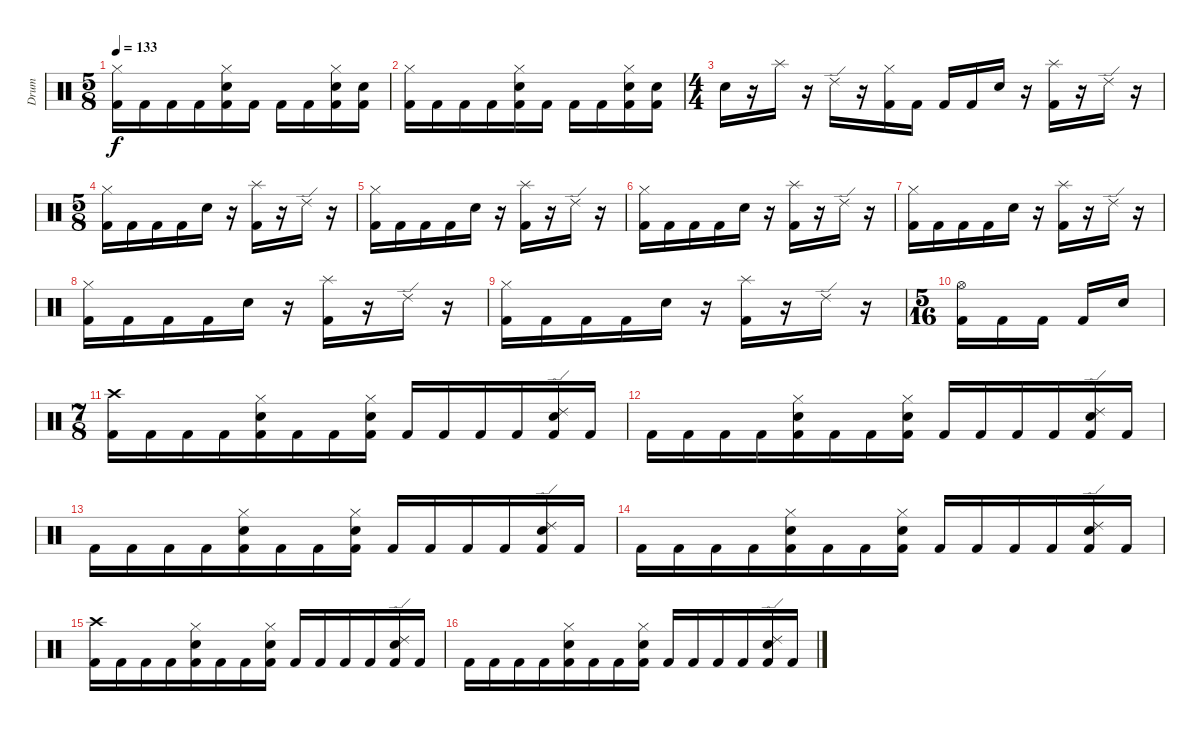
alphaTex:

\track ("Drum" "Drum") {instrument percussion}
\staff {score}
\articulation defaults
\ts (5 8)
\tempo 133
\clef neutral
\ks c
("Hi-Hat (closed)" "Kick (hit) 2").16{dy f} "Kick (hit) 2".16 "Kick (hit) 2".16 "Kick (hit) 2".16 ("Hi-Hat (closed)" "Snare (hit) 2" "Kick (hit) 2").16 "Kick (hit) 2".16 "Kick (hit) 2".16 "Kick (hit) 2".16 ("Hi-Hat (closed)" "Snare (hit) 2" "Kick (hit) 2").16 ("Snare (hit) 2" "Kick (hit) 2").16 |
("Hi-Hat (closed)" "Kick (hit) 2").16 "Kick (hit) 2".16 "Kick (hit) 2".16 "Kick (hit) 2".16 ("Hi-Hat (closed)" "Snare (hit) 2" "Kick (hit) 2").16 "Kick (hit) 2".16 "Kick (hit) 2".16 "Kick (hit) 2".16 ("Hi-Hat (closed)" "Snare (hit) 2" "Kick (hit) 2").16 ("Snare (hit) 2" "Kick (hit) 2").16 |
\ts (4 4)
"Snare (hit) 2".16 r.16 "Splash (hit)".16 r.16 "Ride (edge) 2".16 r.16 ("Hi-Hat (closed)" "Kick (hit) 2").16 "Kick (hit) 2".16 "Kick (hit) 2".16 "Kick (hit) 2".16 "Snare (hit) 2".16 r.16 ("Splash (hit)" "Kick (hit) 2").16 r.16 "Ride (edge) 2".16 r.16 |
\ts (5 8)
("Hi-Hat (closed)" "Kick (hit) 2").16 "Kick (hit) 2".16 "Kick (hit) 2".16 "Kick (hit) 2".16 "Snare (hit) 2".16 r.16 ("Splash (hit)" "Kick (hit) 2").16 r.16 "Ride (edge) 2".16 r.16 |
("Hi-Hat (closed)" "Kick (hit) 2").16 "Kick (hit) 2".16 "Kick (hit) 2".16 "Kick (hit) 2".16 "Snare (hit) 2".16 r.16 ("Splash (hit)" "Kick (hit) 2").16 r.16 "Ride (edge) 2".16 r.16 |
("Hi-Hat (closed)" "Kick (hit) 2").16 "Kick (hit) 2".16 "Kick (hit) 2".16 "Kick (hit) 2".16 "Snare (hit) 2".16 r.16 ("Splash (hit)" "Kick (hit) 2").16 r.16 "Ride (edge) 2".16 r.16 |
("Hi-Hat (closed)" "Kick (hit) 2").16 "Kick (hit) 2".16 "Kick (hit) 2".16 "Kick (hit) 2".16 "Snare (hit) 2".16 r.16 ("Splash (hit)" "Kick (hit) 2").16 r.16 "Ride (edge) 2".16 r.16 |
("Hi-Hat (closed)" "Kick (hit) 2").16 "Kick (hit) 2".16 "Kick (hit) 2".16 "Kick (hit) 2".16 "Snare (hit) 2".16 r.16 ("Splash (hit)" "Kick (hit) 2").16 r.16 "Ride (edge) 2".16 r.16 |
("Hi-Hat (closed)" "Kick (hit) 2").16 "Kick (hit) 2".16 "Kick (hit) 2".16 "Kick (hit) 2".16 "Snare (hit) 2".16 r.16 ("Splash (hit)" "Kick (hit) 2").16 r.16 "Ride (edge) 2".16 r.16 |
\ts (5 16)
("Hi-Hat (open)" "Kick (hit) 2").16 "Kick (hit) 2".16 "Kick (hit) 2".16 "Kick (hit) 2".16 "Snare (hit) 2".16 |
\ts (7 8)
("Crash high (hit)" "Kick (hit) 2").16 "Kick (hit) 2".16 "Kick (hit) 2".16 "Kick (hit) 2".16 ("Hi-Hat (closed)" "Snare (hit) 2" "Kick (hit) 2").16 "Kick (hit) 2".16 "Kick (hit) 2".16 ("Hi-Hat (closed)" "Snare (hit) 2" "Kick (hit) 2").16 "Kick (hit) 2".16 "Kick (hit) 2".16 "Kick (hit) 2".16 "Kick (hit) 2".16 ("Ride (edge) 2" "Snare (hit) 2" "Kick (hit) 2").16 "Kick (hit) 2".16 |
"Kick (hit) 2".16 "Kick (hit) 2".16 "Kick (hit) 2".16 "Kick (hit) 2".16 ("Hi-Hat (closed)" "Snare (hit) 2" "Kick (hit) 2").16 "Kick (hit) 2".16 "Kick (hit) 2".16 ("Hi-Hat (closed)" "Snare (hit) 2" "Kick (hit) 2").16 "Kick (hit) 2".16 "Kick (hit) 2".16 "Kick (hit) 2".16 "Kick (hit) 2".16 ("Ride (edge) 2" "Snare (hit) 2" "Kick (hit) 2").16 "Kick (hit) 2".16 |
"Kick (hit) 2".16 "Kick (hit) 2".16 "Kick (hit) 2".16 "Kick (hit) 2".16 ("Hi-Hat (closed)" "Snare (hit) 2" "Kick (hit) 2").16 "Kick (hit) 2".16 "Kick (hit) 2".16 ("Hi-Hat (closed)" "Snare (hit) 2" "Kick (hit) 2").16 "Kick (hit) 2".16 "Kick (hit) 2".16 "Kick (hit) 2".16 "Kick (hit) 2".16 ("Ride (edge) 2" "Snare (hit) 2" "Kick (hit) 2").16 "Kick (hit) 2".16 |
"Kick (hit) 2".16 "Kick (hit) 2".16 "Kick (hit) 2".16 "Kick (hit) 2".16 ("Hi-Hat (closed)" "Snare (hit) 2" "Kick (hit) 2").16 "Kick (hit) 2".16 "Kick (hit) 2".16 ("Hi-Hat (closed)" "Snare (hit) 2" "Kick (hit) 2").16 "Kick (hit) 2".16 "Kick (hit) 2".16 "Kick (hit) 2".16 "Kick (hit) 2".16 ("Ride (edge) 2" "Snare (hit) 2" "Kick (hit) 2").16 "Kick (hit) 2".16 |
("Crash high (hit)" "Kick (hit) 2").16 "Kick (hit) 2".16 "Kick (hit) 2".16 "Kick (hit) 2".16 ("Hi-Hat (closed)" "Snare (hit) 2" "Kick (hit) 2").16 "Kick (hit) 2".16 "Kick (hit) 2".16 ("Hi-Hat (closed)" "Snare (hit) 2" "Kick (hit) 2").16 "Kick (hit) 2".16 "Kick (hit) 2".16 "Kick (hit) 2".16 "Kick (hit) 2".16 ("Ride (edge) 2" "Snare (hit) 2" "Kick (hit) 2").16 "Kick (hit) 2".16 |
"Kick (hit) 2".16 "Kick (hit) 2".16 "Kick (hit) 2".16 "Kick (hit) 2".16 ("Hi-Hat (closed)" "Snare (hit) 2" "Kick (hit) 2").16 "Kick (hit) 2".16 "Kick (hit) 2".16 ("Hi-Hat (closed)" "Snare (hit) 2" "Kick (hit) 2").16 "Kick (hit) 2".16 "Kick (hit) 2".16 "Kick (hit) 2".16 "Kick (hit) 2".16 ("Ride (edge) 2" "Snare (hit) 2" "Kick (hit) 2").16 "Kick (hit) 2".16
